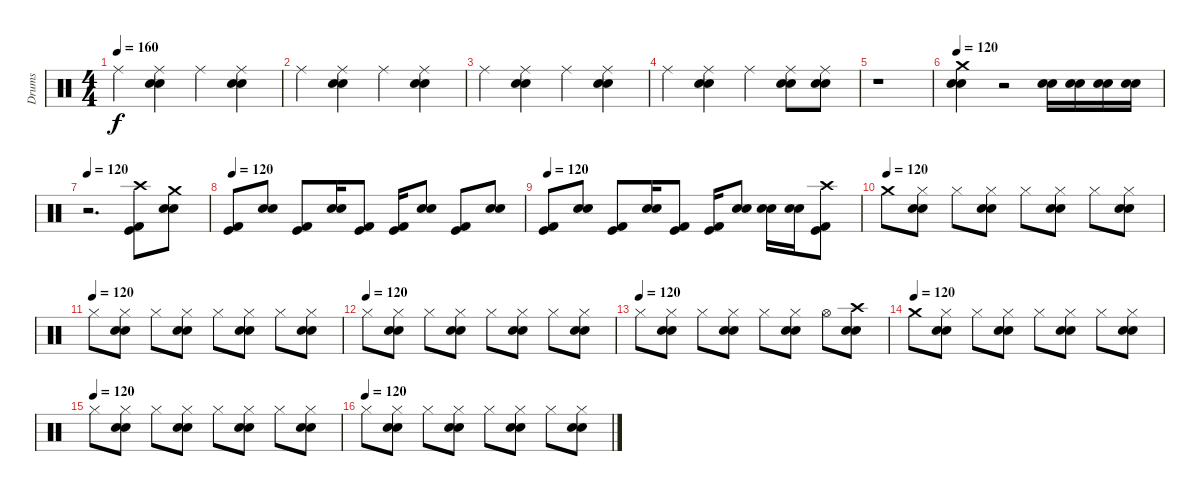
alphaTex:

\track ("Drums" "Drums") {instrument percussion}
\staff {score}
\articulation defaults
\ts (4 4)
\tempo 160
\clef neutral
\ks c "Ride (middle)".4{dy f}
("Ride (middle)" "Electric Snare (hit)" "Snare (hit) 2").4 "Ride (middle)".4 ("Ride (middle)" "Electric Snare (hit)" "Snare (hit) 2").4 |
"Ride (middle)".4 ("Ride (middle)" "Electric Snare (hit)" "Snare (hit) 2").4 "Ride (middle)".4 ("Ride (middle)" "Electric Snare (hit)" "Snare (hit) 2").4 |
"Ride (middle)".4 ("Ride (middle)" "Electric Snare (hit)" "Snare (hit) 2").4 "Ride (middle)".4 ("Ride (middle)" "Electric Snare (hit)" "Snare (hit) 2").4 |
"Ride (middle)".4 ("Ride (middle)" "Electric Snare (hit)" "Snare (hit) 2").4 "Ride (middle)".4 ("Ride (middle)" "Electric Snare (hit)" "Snare (hit) 2").8 ("Ride (middle)" "Electric Snare (hit)" "Snare (hit) 2").8 |
r.1 |
\tempo 120
("Crash medium (hit)" "Electric Snare (hit)" "Snare (hit) 2").4 r.2 ("Electric Snare (hit)" "Snare (hit) 2").16 ("Electric Snare (hit)" "Snare (hit) 2").16 ("Electric Snare (hit)" "Snare (hit) 2").16 ("Electric Snare (hit)" "Snare (hit) 2").16 |
\tempo 120
r.2{d} ("Kick (hit) 2" "Kick (hit)" "Crash high (hit)").8 ("Electric Snare (hit)" "Snare (hit) 2" "Crash medium (hit)").8 |
\tempo 120
("Kick (hit) 2" "Kick (hit)").8 ("Electric Snare (hit)" "Snare (hit) 2").8 ("Kick (hit) 2" "Kick (hit)").8 ("Electric Snare (hit)" "Snare (hit) 2").16 ("Kick (hit) 2" "Kick (hit)").8 ("Kick (hit) 2" "Kick (hit)").16 ("Electric Snare (hit)" "Snare (hit) 2").8 ("Kick (hit) 2" "Kick (hit)").8 ("Electric Snare (hit)" "Snare (hit) 2").8 |
\tempo 120
("Kick (hit) 2" "Kick (hit)").8 ("Electric Snare (hit)" "Snare (hit) 2").8 ("Kick (hit) 2" "Kick (hit)").8 ("Electric Snare (hit)" "Snare (hit) 2").16 ("Kick (hit) 2" "Kick (hit)").8 ("Kick (hit) 2" "Kick (hit)").16 ("Electric Snare (hit)" "Snare (hit) 2").8 ("Electric Snare (hit)" "Snare (hit) 2").16 ("Electric Snare (hit)" "Snare (hit) 2").16 ("Kick (hit) 2" "Kick (hit)" "Crash high (hit)").8 |
\tempo (120)
"Crash medium (hit)".8 ("Hi-Hat (closed)" "Electric Snare (hit)" "Snare (hit) 2").8 "Hi-Hat (closed)".8 ("Hi-Hat (closed)" "Electric Snare (hit)" "Snare (hit) 2").8 "Hi-Hat (closed)".8 ("Hi-Hat (closed)" "Electric Snare (hit)" "Snare (hit) 2").8 "Hi-Hat (closed)".8 ("Hi-Hat (closed)" "Electric Snare (hit)" "Snare (hit) 2").8 |
\tempo (120)
"Hi-Hat (closed)".8 ("Hi-Hat (closed)" "Electric Snare (hit)" "Snare (hit) 2").8 "Hi-Hat (closed)".8 ("Hi-Hat (closed)" "Electric Snare (hit)" "Snare (hit) 2").8 "Hi-Hat (closed)".8 ("Hi-Hat (closed)" "Electric Snare (hit)" "Snare (hit) 2").8 "Hi-Hat (closed)".8 ("Hi-Hat (closed)" "Electric Snare (hit)" "Snare (hit) 2").8 |
\tempo (120)
"Hi-Hat (closed)".8 ("Hi-Hat (closed)" "Electric Snare (hit)" "Snare (hit) 2").8 "Hi-Hat (closed)".8 ("Hi-Hat (closed)" "Electric Snare (hit)" "Snare (hit) 2").8 "Hi-Hat (closed)".8 ("Hi-Hat (closed)" "Electric Snare (hit)" "Snare (hit) 2").8 "Hi-Hat (closed)".8 ("Hi-Hat (closed)" "Electric Snare (hit)" "Snare (hit) 2").8 |
\tempo (120)
"Hi-Hat (closed)".8 ("Hi-Hat (closed)" "Electric Snare (hit)" "Snare (hit) 2").8 "Hi-Hat (closed)".8 ("Hi-Hat (closed)" "Electric Snare (hit)" "Snare (hit) 2").8 "Hi-Hat (closed)".8 ("Hi-Hat (closed)" "Electric Snare (hit)" "Snare (hit) 2").8 "Hi-Hat (open)".8 ("Crash high (hit)" "Electric Snare (hit)" "Snare (hit) 2").8 |
\tempo (120)
"Crash medium (hit)".8 ("Hi-Hat (closed)" "Electric Snare (hit)" "Snare (hit) 2").8 "Hi-Hat (closed)".8 ("Hi-Hat (closed)" "Electric Snare (hit)" "Snare (hit) 2").8 "Hi-Hat (closed)".8 ("Hi-Hat (closed)" "Electric Snare (hit)" "Snare (hit) 2").8 "Hi-Hat (closed)".8 ("Hi-Hat (closed)" "Electric Snare (hit)" "Snare (hit) 2").8 |
\tempo (120)
"Hi-Hat (closed)".8 ("Hi-Hat (closed)" "Electric Snare (hit)" "Snare (hit) 2").8 "Hi-Hat (closed)".8 ("Hi-Hat (closed)" "Electric Snare (hit)" "Snare (hit) 2").8 "Hi-Hat (closed)".8 ("Hi-Hat (closed)" "Electric Snare (hit)" "Snare (hit) 2").8 "Hi-Hat (closed)".8 ("Hi-Hat (closed)" "Electric Snare (hit)" "Snare (hit) 2").8 |
\tempo (120)
"Hi-Hat (closed)".8 ("Hi-Hat (closed)" "Electric Snare (hit)" "Snare (hit) 2").8 "Hi-Hat (closed)".8 ("Hi-Hat (closed)" "Electric Snare (hit)" "Snare (hit) 2").8 "Hi-Hat (closed)".8 ("Hi-Hat (closed)" "Electric Snare (hit)" "Snare (hit) 2").8 "Hi-Hat (closed)".8 ("Hi-Hat (closed)" "Electric Snare (hit)" "Snare (hit) 2").8
